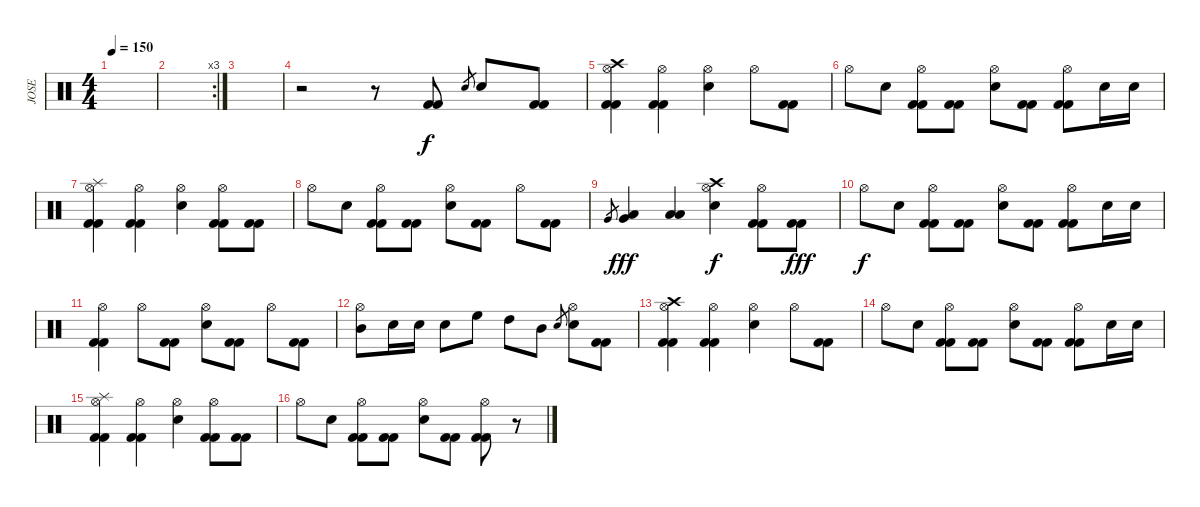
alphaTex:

\track ("JOSE" "JOSE") {instrument percussion}
\staff {score}
\articulation defaults
\ts (4 4)
\tempo 150
\clef neutral
\ks c
|
\rc 3
|
|
r.2 r.8 ("Kick (hit) 2" "Kick (hit) 2").8 "Electric Snare (hit)".8{gr} "Electric Snare (hit)".8 ("Kick (hit) 2" "Kick (hit) 2").8 |
("Hi-Hat (open)" "Crash high (hit)" "Kick (hit) 2" "Kick (hit) 2").4 ("Hi-Hat (open)" "Kick (hit) 2" "Kick (hit) 2").4 ("Hi-Hat (open)" "Electric Snare (hit)").4 "Hi-Hat (open)".8 ("Kick (hit) 2" "Kick (hit) 2").8 |
"Hi-Hat (open)".8 "Electric Snare (hit)".8 ("Hi-Hat (open)" "Kick (hit) 2" "Kick (hit) 2").8 ("Kick (hit) 2" "Kick (hit) 2").8 ("Hi-Hat (open)" "Electric Snare (hit)").8 ("Kick (hit) 2" "Kick (hit) 2").8 ("Hi-Hat (open)" "Kick (hit) 2" "Kick (hit) 2").8 "Electric Snare (hit)".16 "Electric Snare (hit)".16 |
("Hi-Hat (open)" "Splash (hit)" "Kick (hit) 2" "Kick (hit) 2").4 ("Hi-Hat (open)" "Kick (hit) 2" "Kick (hit) 2").4 ("Hi-Hat (open)" "Electric Snare (hit)").4 ("Hi-Hat (open)" "Kick (hit) 2" "Kick (hit) 2").8 ("Kick (hit) 2" "Kick (hit) 2").8 |
"Hi-Hat (open)".8 "Electric Snare (hit)".8 ("Hi-Hat (open)" "Kick (hit) 2" "Kick (hit) 2").8 ("Kick (hit) 2" "Kick (hit) 2").8 ("Hi-Hat (open)" "Electric Snare (hit)").8 ("Kick (hit) 2" "Kick (hit) 2").8 "Hi-Hat (open)".8 ("Kick (hit) 2" "Kick (hit) 2").8 |
"Very Low Tom (hit)".8{gr} ("Low Tom (hit)" "Very Low Tom (hit)").4{dy fff} ("Low Tom (hit)" "Low Floor Tom (hit)").4 ("Hi-Hat (open)" "Crash high (hit)" "Electric Snare (hit)").4{dy f} ("Hi-Hat (open)" "Kick (hit) 2" "Kick (hit) 2").8 ("Kick (hit) 2" "Kick (hit) 2").8{dy fff} |
"Hi-Hat (open)".8{dy f} "Electric Snare (hit)".8 ("Hi-Hat (open)" "Kick (hit) 2" "Kick (hit) 2").8 ("Kick (hit) 2" "Kick (hit) 2").8 ("Hi-Hat (open)" "Electric Snare (hit)").8 ("Kick (hit) 2" "Kick (hit) 2").8 ("Hi-Hat (open)" "Kick (hit) 2" "Kick (hit) 2").8 "Electric Snare (hit)".16 "Electric Snare (hit)".16 |
("Hi-Hat (open)" "Kick (hit) 2" "Kick (hit) 2").4 "Hi-Hat (open)".8 ("Kick (hit) 2" "Kick (hit) 2").8 ("Hi-Hat (open)" "Electric Snare (hit)").8 ("Kick (hit) 2" "Kick (hit) 2").8 "Hi-Hat (open)".8 ("Kick (hit) 2" "Kick (hit) 2").8 |
("Hi-Hat (open)" "Mid Tom (hit)").8 "Electric Snare (hit)".16 "Electric Snare (hit)".16 "Electric Snare (hit)".8 "High Floor Tom (hit)".8 "High Tom (hit)".8 "Mid Tom (hit)".8 "Electric Snare (hit)".8{gr} ("Hi-Hat (open)" "Electric Snare (hit)").8 ("Kick (hit) 2" "Kick (hit) 2").8 |
("Hi-Hat (open)" "Crash high (hit)" "Kick (hit) 2" "Kick (hit) 2").4 ("Hi-Hat (open)" "Kick (hit) 2" "Kick (hit) 2").4 ("Hi-Hat (open)" "Electric Snare (hit)").4 "Hi-Hat (open)".8 ("Kick (hit) 2" "Kick (hit) 2").8 |
"Hi-Hat (open)".8 "Electric Snare (hit)".8 ("Hi-Hat (open)" "Kick (hit) 2" "Kick (hit) 2").8 ("Kick (hit) 2" "Kick (hit) 2").8 ("Hi-Hat (open)" "Electric Snare (hit)").8 ("Kick (hit) 2" "Kick (hit) 2").8 ("Hi-Hat (open)" "Kick (hit) 2" "Kick (hit) 2").8 "Electric Snare (hit)".16 "Electric Snare (hit)".16 |
("Hi-Hat (open)" "Splash (hit)" "Kick (hit) 2" "Kick (hit) 2").4 ("Hi-Hat (open)" "Kick (hit) 2" "Kick (hit) 2").4 ("Hi-Hat (open)" "Electric Snare (hit)").4 ("Hi-Hat (open)" "Kick (hit) 2" "Kick (hit) 2").8 ("Kick (hit) 2" "Kick (hit) 2").8 |
"Hi-Hat (open)".8 "Electric Snare (hit)".8 ("Hi-Hat (open)" "Kick (hit) 2" "Kick (hit) 2").8 ("Kick (hit) 2" "Kick (hit) 2").8 ("Hi-Hat (open)" "Electric Snare (hit)").8 ("Kick (hit) 2" "Kick (hit) 2").8 ("Hi-Hat (open)" "Kick (hit) 2" "Kick (hit) 2").8 r.8
